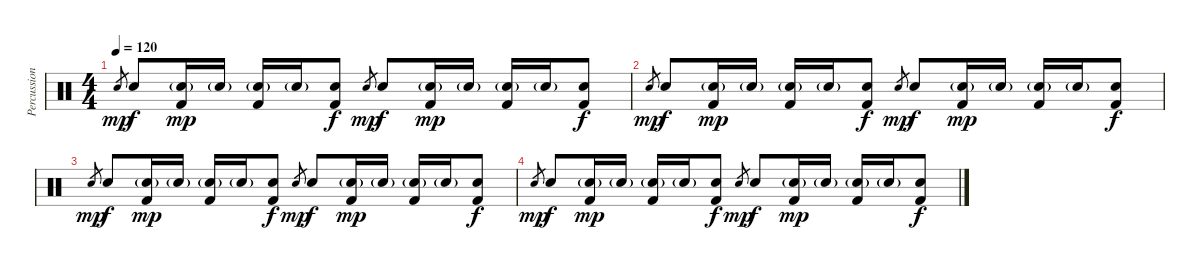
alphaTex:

\track ("Percussion" "Percussion") {instrument percussion}
\staff {score}
\articulation defaults
\ts (4 4)
\tempo 120
\clef neutral
\ks c "Snare (hit) 2".8{gr dy mp} "Snare (hit) 2".8{dy f}
("Snare (hit) 2"{g} "Kick (hit) 2").16{dy mp} "Snare (hit) 2"{g}.16 ("Snare (hit) 2"{g} "Kick (hit) 2").16 "Snare (hit) 2"{g}.16 ("Snare (hit) 2" "Kick (hit) 2").8{dy f} "Snare (hit) 2".8{gr dy mp} "Snare (hit) 2".8{dy f} ("Snare (hit) 2"{g} "Kick (hit) 2").16{dy mp} "Snare (hit) 2"{g}.16 ("Snare (hit) 2"{g} "Kick (hit) 2").16 "Snare (hit) 2"{g}.16 ("Snare (hit) 2" "Kick (hit) 2").8{dy f} |
"Snare (hit) 2".8{gr dy mp} "Snare (hit) 2".8{dy f} ("Snare (hit) 2"{g} "Kick (hit) 2").16{dy mp} "Snare (hit) 2"{g}.16 ("Snare (hit) 2"{g} "Kick (hit) 2").16 "Snare (hit) 2"{g}.16 ("Snare (hit) 2" "Kick (hit) 2").8{dy f} "Snare (hit) 2".8{gr dy mp} "Snare (hit) 2".8{dy f} ("Snare (hit) 2"{g} "Kick (hit) 2").16{dy mp} "Snare (hit) 2"{g}.16 ("Snare (hit) 2"{g} "Kick (hit) 2").16 "Snare (hit) 2"{g}.16 ("Snare (hit) 2" "Kick (hit) 2").8{dy f} |
"Snare (hit) 2".8{gr dy mp} "Snare (hit) 2".8{dy f} ("Snare (hit) 2"{g} "Kick (hit) 2").16{dy mp} "Snare (hit) 2"{g}.16 ("Snare (hit) 2"{g} "Kick (hit) 2").16 "Snare (hit) 2"{g}.16 ("Snare (hit) 2" "Kick (hit) 2").8{dy f} "Snare (hit) 2".8{gr dy mp} "Snare (hit) 2".8{dy f} ("Snare (hit) 2"{g} "Kick (hit) 2").16{dy mp} "Snare (hit) 2"{g}.16 ("Snare (hit) 2"{g} "Kick (hit) 2").16 "Snare (hit) 2"{g}.16 ("Snare (hit) 2" "Kick (hit) 2").8{dy f} |
"Snare (hit) 2".8{gr dy mp} "Snare (hit) 2".8{dy f} ("Snare (hit) 2"{g} "Kick (hit) 2").16{dy mp} "Snare (hit) 2"{g}.16 ("Snare (hit) 2"{g} "Kick (hit) 2").16 "Snare (hit) 2"{g}.16 ("Snare (hit) 2" "Kick (hit) 2").8{dy f} "Snare (hit) 2".8{gr dy mp} "Snare (hit) 2".8{dy f} ("Snare (hit) 2"{g} "Kick (hit) 2").16{dy mp} "Snare (hit) 2"{g}.16 ("Snare (hit) 2"{g} "Kick (hit) 2").16 "Snare (hit) 2"{g}.16 ("Snare (hit) 2" "Kick (hit) 2").8{dy f}
